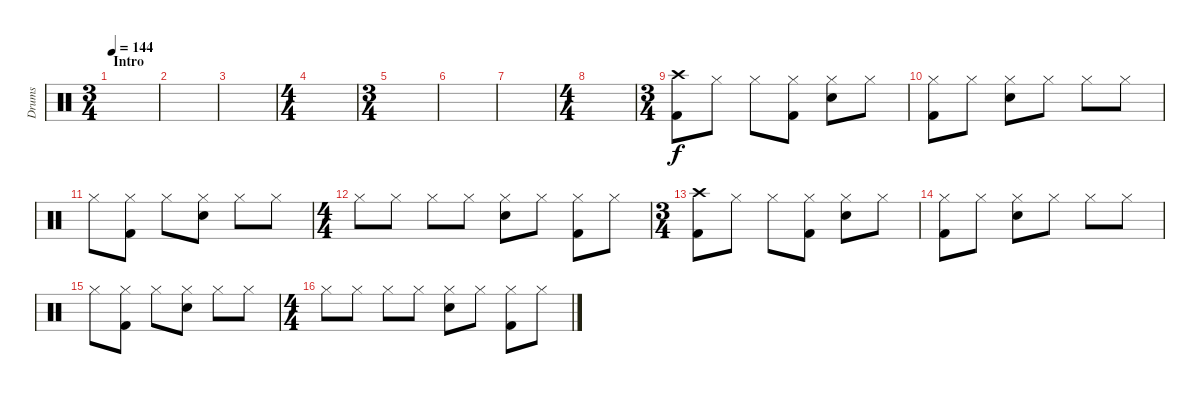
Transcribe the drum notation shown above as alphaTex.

\track ("Drums" "Drums") {instrument percussion}
\staff {score}
\articulation defaults
\ts (3 4)
\section ("" "Intro")
\tempo 144
\clef neutral
\ks c
|
|
|
\ts (4 4)
|
\ts (3 4)
|
|
|
\ts (4 4)
|
\ts (3 4)
("Crash high (hit)" "Kick (hit) 2").8 "Hi-Hat (closed)".8 "Hi-Hat (closed)".8 ("Hi-Hat (closed)" "Kick (hit) 2").8 ("Hi-Hat (closed)" "Electric Snare (hit)").8 "Hi-Hat (closed)".8 |
("Hi-Hat (closed)" "Kick (hit) 2").8 "Hi-Hat (closed)".8 ("Hi-Hat (closed)" "Electric Snare (hit)").8 "Hi-Hat (closed)".8 "Hi-Hat (closed)".8 "Hi-Hat (closed)".8 |
"Hi-Hat (closed)".8 ("Hi-Hat (closed)" "Kick (hit) 2").8 "Hi-Hat (closed)".8 ("Hi-Hat (closed)" "Electric Snare (hit)").8 "Hi-Hat (closed)".8 "Hi-Hat (closed)".8 |
\ts (4 4)
"Hi-Hat (closed)".8 "Hi-Hat (closed)".8 "Hi-Hat (closed)".8 "Hi-Hat (closed)".8 ("Hi-Hat (closed)" "Electric Snare (hit)").8 "Hi-Hat (closed)".8 ("Hi-Hat (closed)" "Kick (hit) 2").8 "Hi-Hat (closed)".8 |
\ts (3 4)
("Crash high (hit)" "Kick (hit) 2").8 "Hi-Hat (closed)".8 "Hi-Hat (closed)".8 ("Hi-Hat (closed)" "Kick (hit) 2").8 ("Hi-Hat (closed)" "Electric Snare (hit)").8 "Hi-Hat (closed)".8 |
("Hi-Hat (closed)" "Kick (hit) 2").8 "Hi-Hat (closed)".8 ("Hi-Hat (closed)" "Electric Snare (hit)").8 "Hi-Hat (closed)".8 "Hi-Hat (closed)".8 "Hi-Hat (closed)".8 |
"Hi-Hat (closed)".8 ("Hi-Hat (closed)" "Kick (hit) 2").8 "Hi-Hat (closed)".8 ("Hi-Hat (closed)" "Electric Snare (hit)").8 "Hi-Hat (closed)".8 "Hi-Hat (closed)".8 |
\ts (4 4)
"Hi-Hat (closed)".8 "Hi-Hat (closed)".8 "Hi-Hat (closed)".8 "Hi-Hat (closed)".8 ("Hi-Hat (closed)" "Electric Snare (hit)").8 "Hi-Hat (closed)".8 ("Hi-Hat (closed)" "Kick (hit) 2").8 "Hi-Hat (closed)".8
